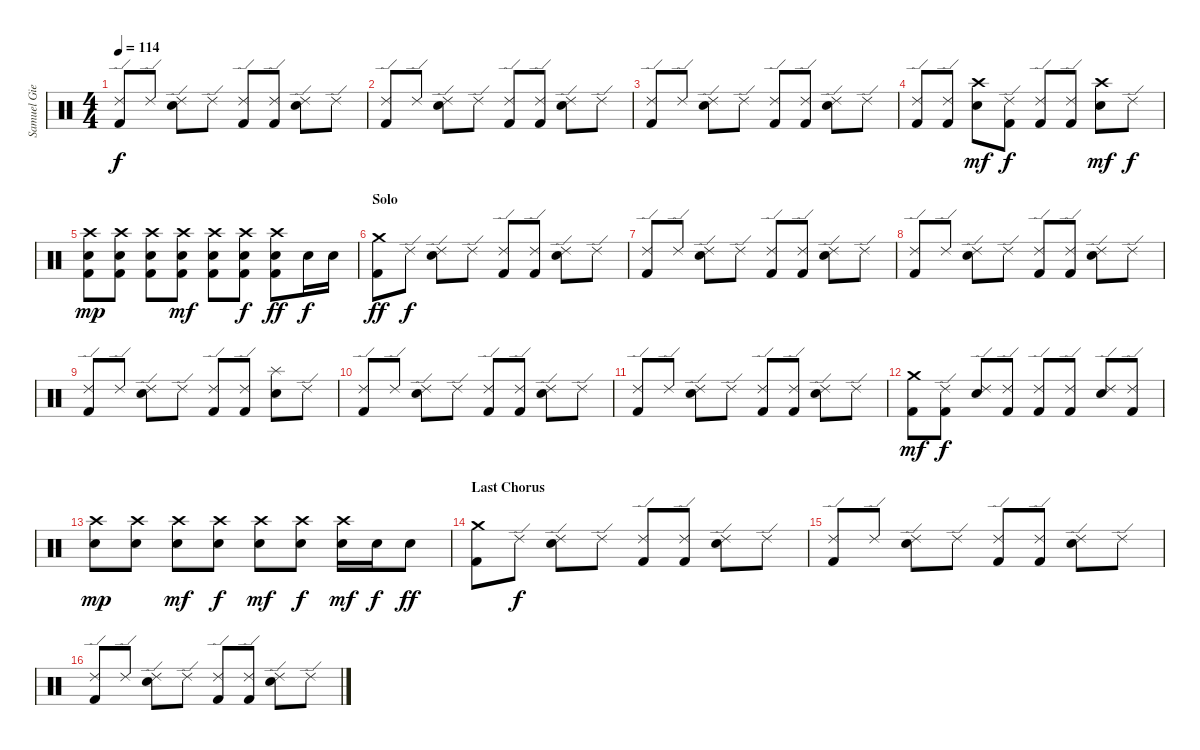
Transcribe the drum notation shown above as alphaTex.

\track ("Samuel Giers - Drum" "Samuel Gie") {instrument percussion}
\staff {score}
\articulation defaults
\ts (4 4)
\tempo 114
\clef neutral
\ks c
("Ride (edge) 2" "Kick (hit) 2").8{dy f} "Ride (edge) 2".8 ("Ride (edge) 2" "Snare (hit) 2").8 "Ride (edge) 2".8 ("Ride (edge) 2" "Kick (hit) 2").8 ("Ride (edge) 2" "Kick (hit) 2").8 ("Ride (edge) 2" "Snare (hit) 2").8 "Ride (edge) 2".8 |
("Ride (edge) 2" "Kick (hit) 2").8 "Ride (edge) 2".8 ("Ride (edge) 2" "Snare (hit) 2").8 "Ride (edge) 2".8 ("Ride (edge) 2" "Kick (hit) 2").8 ("Ride (edge) 2" "Kick (hit) 2").8 ("Ride (edge) 2" "Snare (hit) 2").8 "Ride (edge) 2".8 |
("Ride (edge) 2" "Kick (hit) 2").8 "Ride (edge) 2".8 ("Ride (edge) 2" "Snare (hit) 2").8 "Ride (edge) 2".8 ("Ride (edge) 2" "Kick (hit) 2").8 ("Ride (edge) 2" "Kick (hit) 2").8 ("Ride (edge) 2" "Snare (hit) 2").8 "Ride (edge) 2".8 |
("Ride (edge) 2" "Kick (hit) 2").8 ("Ride (edge) 2" "Kick (hit) 2").8 ("Crash high (hit)" "Snare (hit) 2").8{dy mf} ("Ride (edge) 2" "Kick (hit) 2").8{dy f} ("Ride (edge) 2" "Kick (hit) 2").8 ("Ride (edge) 2" "Kick (hit) 2").8 ("Crash high (hit)" "Snare (hit) 2").8{dy mf} "Ride (edge) 2".8{dy f} |
("Crash high (hit)" "Snare (hit) 2" "Kick (hit) 2").8{dy mp} ("Crash high (hit)" "Snare (hit) 2" "Kick (hit) 2").8 ("Crash high (hit)" "Snare (hit) 2" "Kick (hit) 2").8 ("Crash high (hit)" "Snare (hit) 2" "Kick (hit) 2").8{dy mf} ("Crash high (hit)" "Snare (hit) 2" "Kick (hit) 2").8 ("Crash high (hit)" "Snare (hit) 2" "Kick (hit) 2").8{dy f} ("Crash high (hit)" "Snare (hit) 2" "Kick (hit) 2").8{dy ff} "Snare (hit) 2".16{dy f} "Snare (hit) 2".16 |
\section ("" "Solo")
("Crash medium (hit)" "Kick (hit) 2").8{dy ff} "Ride (edge) 2".8{dy f} ("Ride (edge) 2" "Snare (hit) 2").8 "Ride (edge) 2".8 ("Ride (edge) 2" "Kick (hit) 2").8 ("Ride (edge) 2" "Kick (hit) 2").8 ("Ride (edge) 2" "Snare (hit) 2").8 "Ride (edge) 2".8 |
("Ride (edge) 2" "Kick (hit) 2").8 "Ride (edge) 2".8 ("Ride (edge) 2" "Snare (hit) 2").8 "Ride (edge) 2".8 ("Ride (edge) 2" "Kick (hit) 2").8 ("Ride (edge) 2" "Kick (hit) 2").8 ("Ride (edge) 2" "Snare (hit) 2").8 "Ride (edge) 2".8 |
("Ride (edge) 2" "Kick (hit) 2").8 "Ride (edge) 2".8 ("Ride (edge) 2" "Snare (hit) 2").8 "Ride (edge) 2".8 ("Ride (edge) 2" "Kick (hit) 2").8 ("Ride (edge) 2" "Kick (hit) 2").8 ("Ride (edge) 2" "Snare (hit) 2").8 "Ride (edge) 2".8 |
("Ride (edge) 2" "Kick (hit) 2").8 "Ride (edge) 2".8 ("Ride (edge) 2" "Snare (hit) 2").8 "Ride (edge) 2".8 ("Ride (edge) 2" "Kick (hit) 2").8 ("Ride (edge) 2" "Kick (hit) 2").8 ("Splash (hit)" "Snare (hit) 2").8 "Ride (edge) 2".8 |
("Ride (edge) 2" "Kick (hit) 2").8 "Ride (edge) 2".8 ("Ride (edge) 2" "Snare (hit) 2").8 "Ride (edge) 2".8 ("Ride (edge) 2" "Kick (hit) 2").8 ("Ride (edge) 2" "Kick (hit) 2").8 ("Ride (edge) 2" "Snare (hit) 2").8 "Ride (edge) 2".8 |
("Ride (edge) 2" "Kick (hit) 2").8 "Ride (edge) 2".8 ("Ride (edge) 2" "Snare (hit) 2").8 "Ride (edge) 2".8 ("Ride (edge) 2" "Kick (hit) 2").8 ("Ride (edge) 2" "Kick (hit) 2").8 ("Ride (edge) 2" "Snare (hit) 2").8 "Ride (edge) 2".8 |
("Crash medium (hit)" "Kick (hit) 2").8{dy mf} ("Ride (edge) 2" "Kick (hit) 2").8{dy f} ("Ride (edge) 2" "Snare (hit) 2").8 ("Ride (edge) 2" "Kick (hit) 2").8 ("Ride (edge) 2" "Kick (hit) 2").8 ("Ride (edge) 2" "Kick (hit) 2").8 ("Ride (edge) 2" "Snare (hit) 2").8 ("Ride (edge) 2" "Kick (hit) 2").8 |
("Crash high (hit)" "Snare (hit) 2").8{dy mp} ("Crash high (hit)" "Snare (hit) 2").8 ("Crash high (hit)" "Snare (hit) 2").8{dy mf} ("Crash high (hit)" "Snare (hit) 2").8{dy f} ("Crash high (hit)" "Snare (hit) 2").8{dy mf} ("Crash high (hit)" "Snare (hit) 2").8{dy f} ("Crash high (hit)" "Snare (hit) 2").16{dy mf} "Snare (hit) 2".16{dy f} "Snare (hit) 2".8{dy ff} |
\section ("" "Last Chorus")
("Crash medium (hit)" "Kick (hit) 2").8 "Ride (edge) 2".8{dy f} ("Ride (edge) 2" "Snare (hit) 2").8 "Ride (edge) 2".8 ("Ride (edge) 2" "Kick (hit) 2").8 ("Ride (edge) 2" "Kick (hit) 2").8 ("Ride (edge) 2" "Snare (hit) 2").8 "Ride (edge) 2".8 |
("Ride (edge) 2" "Kick (hit) 2").8 "Ride (edge) 2".8 ("Ride (edge) 2" "Snare (hit) 2").8 "Ride (edge) 2".8 ("Ride (edge) 2" "Kick (hit) 2").8 ("Ride (edge) 2" "Kick (hit) 2").8 ("Ride (edge) 2" "Snare (hit) 2").8 "Ride (edge) 2".8 |
("Ride (edge) 2" "Kick (hit) 2").8 "Ride (edge) 2".8 ("Ride (edge) 2" "Snare (hit) 2").8 "Ride (edge) 2".8 ("Ride (edge) 2" "Kick (hit) 2").8 ("Ride (edge) 2" "Kick (hit) 2").8 ("Ride (edge) 2" "Snare (hit) 2").8 "Ride (edge) 2".8
